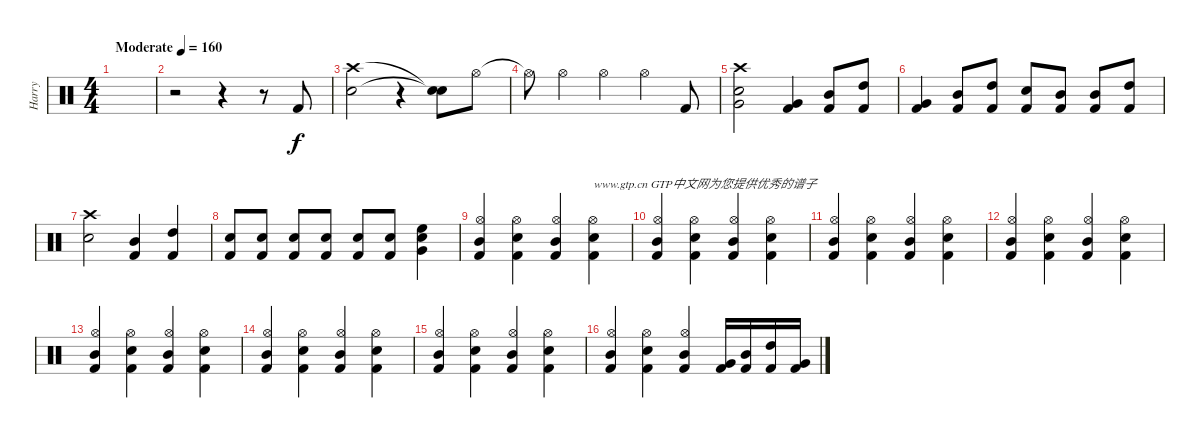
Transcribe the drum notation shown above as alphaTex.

\track ("Harry" "Harry") {instrument percussion}
\staff {score}
\articulation defaults
\ts (4 4)
\tempo (160 "Moderate")
\clef neutral
\ks c
|
r.2 r.4 r.8 "Kick (hit) 2".8 |
("Crash high (hit)" "Snare (hit) 2").2 r.4 ("Snare (hit)"{t} "Snare (hit)"{t}).8 "Hi-Hat (open)".8 |
"Hi-Hat (open)"{t}.8 "Hi-Hat (open)".4 "Hi-Hat (open)".4 "Hi-Hat (open)".4 "Kick (hit) 2".8 |
("Very Low Tom (hit)" "Crash high (hit)" "Snare (hit) 2").2 ("Kick (hit) 2" "Very Low Tom (hit)").4 ("Kick (hit) 2" "Mid Tom (hit)").8 ("Kick (hit) 2" "High Tom (hit)").8 |
("Kick (hit) 2" "Very Low Tom (hit)").4 ("Kick (hit) 2" "Mid Tom (hit)").8 ("Kick (hit) 2" "High Tom (hit)").8 ("Kick (hit) 2" "Snare (hit) 2").8 ("Kick (hit) 2" "Mid Tom (hit)").8 ("Kick (hit) 2" "Mid Tom (hit)").8 ("Kick (hit) 2" "High Tom (hit)").8 |
("Crash high (hit)" "Snare (hit) 2").2 ("Kick (hit) 2" "Mid Tom (hit)").4 ("Kick (hit) 2" "High Tom (hit)").4 |
("Snare (hit) 2" "Kick (hit) 2").8 ("Snare (hit) 2" "Kick (hit) 2").8 ("Snare (hit) 2" "Kick (hit) 2").8 ("Snare (hit) 2" "Kick (hit) 2").8 ("Snare (hit) 2" "Kick (hit) 2").8 ("Snare (hit) 2" "Kick (hit) 2").8 ("High Floor Tom (hit)" "Very Low Tom (hit)" "Snare (hit) 2").4 |
("Hi-Hat (open)" "Mid Tom (hit)" "Kick (hit) 2").4 ("Hi-Hat (open)" "Kick (hit) 2" "Snare (hit) 2").4 ("Hi-Hat (open)" "Mid Tom (hit)" "Kick (hit) 2").4 ("Hi-Hat (open)" "Kick (hit) 2" "Snare (hit) 2").4{txt "www.gtp.cn GTP中文网为您提供优秀的谱子"} |
("Hi-Hat (open)" "Mid Tom (hit)" "Kick (hit) 2").4 ("Hi-Hat (open)" "Kick (hit) 2" "Snare (hit) 2").4 ("Hi-Hat (open)" "Mid Tom (hit)" "Kick (hit) 2").4 ("Hi-Hat (open)" "Kick (hit) 2" "Snare (hit) 2").4 |
("Hi-Hat (open)" "Mid Tom (hit)" "Kick (hit) 2").4 ("Hi-Hat (open)" "Kick (hit) 2" "Snare (hit) 2").4 ("Hi-Hat (open)" "Mid Tom (hit)" "Kick (hit) 2").4 ("Hi-Hat (open)" "Kick (hit) 2" "Snare (hit) 2").4 |
("Hi-Hat (open)" "Mid Tom (hit)" "Kick (hit) 2").4 ("Hi-Hat (open)" "Kick (hit) 2" "Snare (hit) 2").4 ("Hi-Hat (open)" "Mid Tom (hit)" "Kick (hit) 2").4 ("Hi-Hat (open)" "Kick (hit) 2" "Snare (hit) 2").4 |
("Hi-Hat (open)" "Mid Tom (hit)" "Kick (hit) 2").4 ("Hi-Hat (open)" "Kick (hit) 2" "Snare (hit) 2").4 ("Hi-Hat (open)" "Mid Tom (hit)" "Kick (hit) 2").4 ("Hi-Hat (open)" "Kick (hit) 2" "Snare (hit) 2").4 |
("Hi-Hat (open)" "Mid Tom (hit)" "Kick (hit) 2").4 ("Hi-Hat (open)" "Kick (hit) 2" "Snare (hit) 2").4 ("Hi-Hat (open)" "Mid Tom (hit)" "Kick (hit) 2").4 ("Hi-Hat (open)" "Kick (hit) 2" "Snare (hit) 2").4 |
("Hi-Hat (open)" "Mid Tom (hit)" "Kick (hit) 2").4 ("Hi-Hat (open)" "Kick (hit) 2" "Snare (hit) 2").4 ("Hi-Hat (open)" "Mid Tom (hit)" "Kick (hit) 2").4 ("Hi-Hat (open)" "Kick (hit) 2" "Snare (hit) 2").4 |
("Hi-Hat (open)" "Mid Tom (hit)" "Kick (hit) 2").4 ("Hi-Hat (open)" "Kick (hit) 2" "Snare (hit) 2").4 ("Hi-Hat (open)" "Mid Tom (hit)" "Kick (hit) 2").4 ("Very Low Tom (hit)" "Kick (hit) 2").16 ("Mid Tom (hit)" "Kick (hit) 2").16 ("High Tom (hit)" "Kick (hit) 2").16 ("Very Low Tom (hit)" "Kick (hit) 2").16
